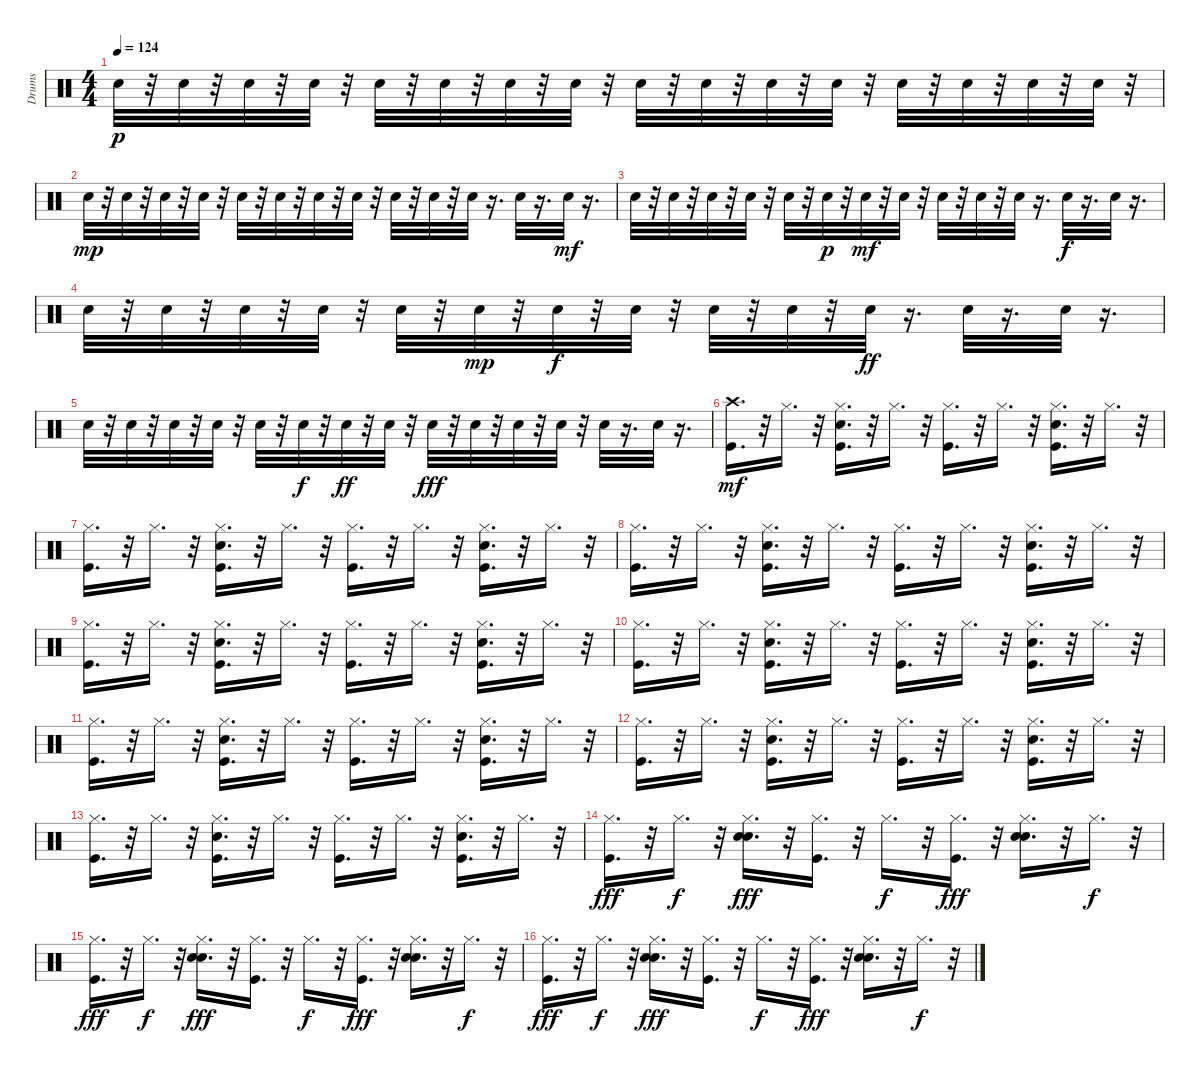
\track ("Drums" "Drums") {instrument percussion}
\staff {score}
\articulation defaults
\ts (4 4)
\tempo 124
\clef neutral
\ks c "Snare (hit) 2".32{dy p}
r.32 "Snare (hit) 2".32 r.32 "Snare (hit) 2".32 r.32 "Snare (hit) 2".32 r.32 "Snare (hit) 2".32 r.32 "Snare (hit) 2".32 r.32 "Snare (hit) 2".32 r.32 "Snare (hit) 2".32 r.32 "Snare (hit) 2".32 r.32 "Snare (hit) 2".32 r.32 "Snare (hit) 2".32 r.32 "Snare (hit) 2".32 r.32 "Snare (hit) 2".32 r.32 "Snare (hit) 2".32 r.32 "Snare (hit) 2".32 r.32 "Snare (hit) 2".32 r.32 |
"Snare (hit) 2".32{dy mp} r.32 "Snare (hit) 2".32 r.32 "Snare (hit) 2".32 r.32 "Snare (hit) 2".32 r.32 "Snare (hit) 2".32 r.32 "Snare (hit) 2".32 r.32 "Snare (hit) 2".32 r.32 "Snare (hit) 2".32 r.32 "Snare (hit) 2".32 r.32 "Snare (hit) 2".32 r.32 "Snare (hit) 2".32 r.16{d} "Snare (hit) 2".32 r.16{d} "Snare (hit) 2".32{dy mf} r.16{d} |
"Snare (hit) 2".32 r.32 "Snare (hit) 2".32 r.32 "Snare (hit) 2".32 r.32 "Snare (hit) 2".32 r.32 "Snare (hit) 2".32 r.32 "Snare (hit) 2".32{dy p} r.32 "Snare (hit) 2".32{dy mf} r.32 "Snare (hit) 2".32 r.32 "Snare (hit) 2".32 r.32 "Snare (hit) 2".32 r.32 "Snare (hit) 2".32 r.16{d} "Snare (hit) 2".32{dy f} r.16{d} "Snare (hit) 2".32 r.16{d} |
"Snare (hit) 2".32 r.32 "Snare (hit) 2".32 r.32 "Snare (hit) 2".32 r.32 "Snare (hit) 2".32 r.32 "Snare (hit) 2".32 r.32 "Snare (hit) 2".32{dy mp} r.32 "Snare (hit) 2".32{dy f} r.32 "Snare (hit) 2".32 r.32 "Snare (hit) 2".32 r.32 "Snare (hit) 2".32 r.32 "Snare (hit) 2".32{dy ff} r.16{d} "Snare (hit) 2".32 r.16{d} "Snare (hit) 2".32 r.16{d} |
"Snare (hit) 2".32 r.32 "Snare (hit) 2".32 r.32 "Snare (hit) 2".32 r.32 "Snare (hit) 2".32 r.32 "Snare (hit) 2".32 r.32 "Snare (hit) 2".32{dy f} r.32 "Snare (hit) 2".32{dy ff} r.32 "Snare (hit) 2".32 r.32 "Snare (hit) 2".32{dy fff} r.32 "Snare (hit) 2".32 r.32 "Snare (hit) 2".32 r.32 "Snare (hit) 2".32 r.32 "Snare (hit) 2".32 r.16{d} "Snare (hit) 2".32 r.16{d} |
("Kick (hit)" "Crash high (hit)").16{d dy mf} r.32 "Hi-Hat (closed)".16{d} r.32 ("Kick (hit)" "Snare (hit) 2" "Hi-Hat (closed)").16{d} r.32 "Hi-Hat (closed)".16{d} r.32 ("Kick (hit)" "Hi-Hat (closed)").16{d} r.32 "Hi-Hat (closed)".16{d} r.32 ("Kick (hit)" "Snare (hit) 2" "Hi-Hat (closed)").16{d} r.32 "Hi-Hat (closed)".16{d} r.32 |
("Kick (hit)" "Hi-Hat (closed)").16{d} r.32 "Hi-Hat (closed)".16{d} r.32 ("Kick (hit)" "Snare (hit) 2" "Hi-Hat (closed)").16{d} r.32 "Hi-Hat (closed)".16{d} r.32 ("Kick (hit)" "Hi-Hat (closed)").16{d} r.32 "Hi-Hat (closed)".16{d} r.32 ("Kick (hit)" "Snare (hit) 2" "Hi-Hat (closed)").16{d} r.32 "Hi-Hat (closed)".16{d} r.32 |
("Kick (hit)" "Hi-Hat (closed)").16{d} r.32 "Hi-Hat (closed)".16{d} r.32 ("Kick (hit)" "Snare (hit) 2" "Hi-Hat (closed)").16{d} r.32 "Hi-Hat (closed)".16{d} r.32 ("Kick (hit)" "Hi-Hat (closed)").16{d} r.32 "Hi-Hat (closed)".16{d} r.32 ("Kick (hit)" "Snare (hit) 2" "Hi-Hat (closed)").16{d} r.32 "Hi-Hat (closed)".16{d} r.32 |
("Kick (hit)" "Hi-Hat (closed)").16{d} r.32 "Hi-Hat (closed)".16{d} r.32 ("Kick (hit)" "Snare (hit) 2" "Hi-Hat (closed)").16{d} r.32 "Hi-Hat (closed)".16{d} r.32 ("Kick (hit)" "Hi-Hat (closed)").16{d} r.32 "Hi-Hat (closed)".16{d} r.32 ("Kick (hit)" "Snare (hit) 2" "Hi-Hat (closed)").16{d} r.32 "Hi-Hat (closed)".16{d} r.32 |
("Kick (hit)" "Hi-Hat (closed)").16{d} r.32 "Hi-Hat (closed)".16{d} r.32 ("Kick (hit)" "Snare (hit) 2" "Hi-Hat (closed)").16{d} r.32 "Hi-Hat (closed)".16{d} r.32 ("Kick (hit)" "Hi-Hat (closed)").16{d} r.32 "Hi-Hat (closed)".16{d} r.32 ("Kick (hit)" "Snare (hit) 2" "Hi-Hat (closed)").16{d} r.32 "Hi-Hat (closed)".16{d} r.32 |
("Kick (hit)" "Hi-Hat (closed)").16{d} r.32 "Hi-Hat (closed)".16{d} r.32 ("Kick (hit)" "Snare (hit) 2" "Hi-Hat (closed)").16{d} r.32 "Hi-Hat (closed)".16{d} r.32 ("Kick (hit)" "Hi-Hat (closed)").16{d} r.32 "Hi-Hat (closed)".16{d} r.32 ("Kick (hit)" "Snare (hit) 2" "Hi-Hat (closed)").16{d} r.32 "Hi-Hat (closed)".16{d} r.32 |
("Kick (hit)" "Hi-Hat (closed)").16{d} r.32 "Hi-Hat (closed)".16{d} r.32 ("Kick (hit)" "Snare (hit) 2" "Hi-Hat (closed)").16{d} r.32 "Hi-Hat (closed)".16{d} r.32 ("Kick (hit)" "Hi-Hat (closed)").16{d} r.32 "Hi-Hat (closed)".16{d} r.32 ("Kick (hit)" "Snare (hit) 2" "Hi-Hat (closed)").16{d} r.32 "Hi-Hat (closed)".16{d} r.32 |
("Kick (hit)" "Hi-Hat (closed)").16{d} r.32 "Hi-Hat (closed)".16{d} r.32 ("Kick (hit)" "Snare (hit) 2" "Hi-Hat (closed)").16{d} r.32 "Hi-Hat (closed)".16{d} r.32 ("Kick (hit)" "Hi-Hat (closed)").16{d} r.32 "Hi-Hat (closed)".16{d} r.32 ("Kick (hit)" "Snare (hit) 2" "Hi-Hat (closed)").16{d} r.32 "Hi-Hat (closed)".16{d} r.32 |
("Kick (hit)" "Hi-Hat (closed)").16{d dy fff} r.32 "Hi-Hat (closed)".16{d dy f} r.32 ("Snare (hit) 2" "Hand Clap (hit)" "Hi-Hat (closed)").16{d dy fff} r.32 ("Kick (hit)" "Hi-Hat (closed)").16{d} r.32 "Hi-Hat (closed)".16{d dy f} r.32 ("Kick (hit)" "Hi-Hat (closed)").16{d dy fff} r.32 ("Snare (hit) 2" "Hand Clap (hit)" "Hi-Hat (closed)").16{d} r.32 "Hi-Hat (closed)".16{d dy f} r.32 |
("Kick (hit)" "Hi-Hat (closed)").16{d dy fff} r.32 "Hi-Hat (closed)".16{d dy f} r.32 ("Snare (hit) 2" "Hand Clap (hit)" "Hi-Hat (closed)").16{d dy fff} r.32 ("Kick (hit)" "Hi-Hat (closed)").16{d} r.32 "Hi-Hat (closed)".16{d dy f} r.32 ("Kick (hit)" "Hi-Hat (closed)").16{d dy fff} r.32 ("Snare (hit) 2" "Hand Clap (hit)" "Hi-Hat (closed)").16{d} r.32 "Hi-Hat (closed)".16{d dy f} r.32 |
("Kick (hit)" "Hi-Hat (closed)").16{d dy fff} r.32 "Hi-Hat (closed)".16{d dy f} r.32 ("Snare (hit) 2" "Hand Clap (hit)" "Hi-Hat (closed)").16{d dy fff} r.32 ("Kick (hit)" "Hi-Hat (closed)").16{d} r.32 "Hi-Hat (closed)".16{d dy f} r.32 ("Kick (hit)" "Hi-Hat (closed)").16{d dy fff} r.32 ("Snare (hit) 2" "Hand Clap (hit)" "Hi-Hat (closed)").16{d} r.32 "Hi-Hat (closed)".16{d dy f} r.32
